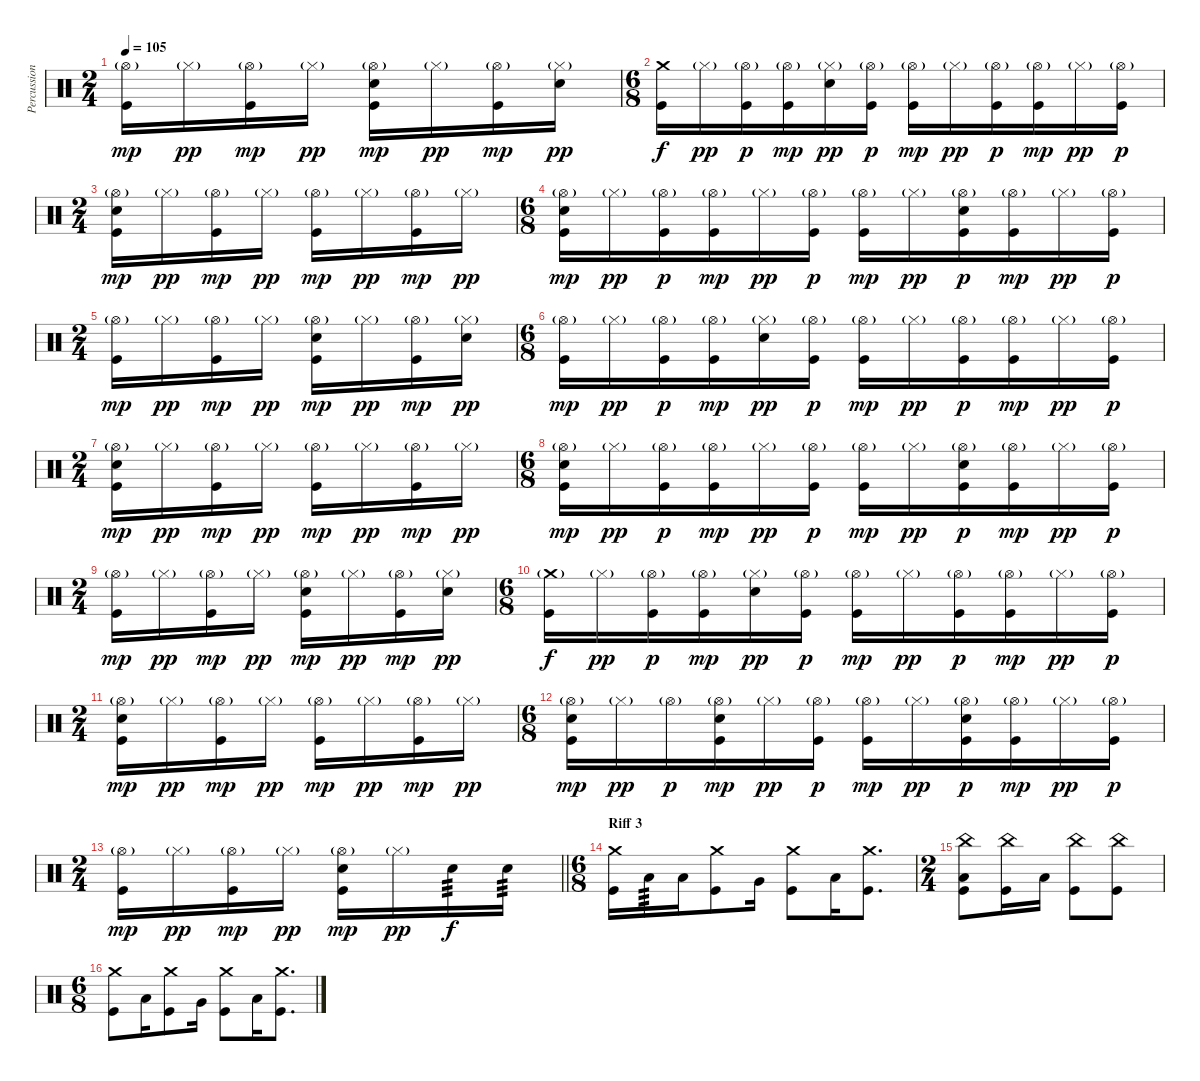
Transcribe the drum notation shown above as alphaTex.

\track ("Percussion" "Percussion") {instrument percussion}
\staff {score}
\articulation defaults
\ts (2 4)
\tempo 105
\clef neutral
\ks c
("Hi-Hat (open)"{g} "Kick (hit)").16{dy mp} "Hi-Hat (closed)"{g}.16{dy pp} ("Hi-Hat (open)"{g} "Kick (hit)").16{dy mp} "Hi-Hat (closed)"{g}.16{dy pp} ("Hi-Hat (open)"{g} "Snare (hit) 2" "Kick (hit)").16{dy mp} "Hi-Hat (closed)"{g}.16{dy pp} ("Hi-Hat (open)"{g} "Kick (hit)").16{dy mp} ("Hi-Hat (closed)"{g} "Snare (hit) 2").16{dy pp} |
\ts (6 8)
("Crash medium (hit)" "Kick (hit)").16{dy f} "Hi-Hat (closed)"{g}.16{dy pp} ("Hi-Hat (open)"{g} "Kick (hit)").16{dy p} ("Hi-Hat (open)"{g} "Kick (hit)").16{dy mp} ("Hi-Hat (closed)"{g} "Snare (hit) 2").16{dy pp} ("Hi-Hat (open)"{g} "Kick (hit)").16{dy p} ("Hi-Hat (open)"{g} "Kick (hit)").16{dy mp} "Hi-Hat (closed)"{g}.16{dy pp} ("Hi-Hat (open)"{g} "Kick (hit)").16{dy p} ("Hi-Hat (open)"{g} "Kick (hit)").16{dy mp} "Hi-Hat (closed)"{g}.16{dy pp} ("Hi-Hat (open)"{g} "Kick (hit)").16{dy p} |
\ts (2 4)
("Hi-Hat (open)"{g} "Snare (hit) 2" "Kick (hit)").16{dy mp} "Hi-Hat (closed)"{g}.16{dy pp} ("Hi-Hat (open)"{g} "Kick (hit)").16{dy mp} "Hi-Hat (closed)"{g}.16{dy pp} ("Hi-Hat (open)"{g} "Kick (hit)").16{dy mp} "Hi-Hat (closed)"{g}.16{dy pp} ("Hi-Hat (open)"{g} "Kick (hit)").16{dy mp} "Hi-Hat (closed)"{g}.16{dy pp} |
\ts (6 8)
("Hi-Hat (open)"{g} "Snare (hit) 2" "Kick (hit)").16{dy mp} "Hi-Hat (closed)"{g}.16{dy pp} ("Hi-Hat (open)"{g} "Kick (hit)").16{dy p} ("Hi-Hat (open)"{g} "Kick (hit)").16{dy mp} "Hi-Hat (closed)"{g}.16{dy pp} ("Hi-Hat (open)"{g} "Kick (hit)").16{dy p} ("Hi-Hat (open)"{g} "Kick (hit)").16{dy mp} "Hi-Hat (closed)"{g}.16{dy pp} ("Hi-Hat (open)"{g} "Snare (hit) 2" "Kick (hit)").16{dy p} ("Hi-Hat (open)"{g} "Kick (hit)").16{dy mp} "Hi-Hat (closed)"{g}.16{dy pp} ("Hi-Hat (open)"{g} "Kick (hit)").16{dy p} |
\ts (2 4)
("Hi-Hat (open)"{g} "Kick (hit)").16{dy mp} "Hi-Hat (closed)"{g}.16{dy pp} ("Hi-Hat (open)"{g} "Kick (hit)").16{dy mp} "Hi-Hat (closed)"{g}.16{dy pp} ("Hi-Hat (open)"{g} "Snare (hit) 2" "Kick (hit)").16{dy mp} "Hi-Hat (closed)"{g}.16{dy pp} ("Hi-Hat (open)"{g} "Kick (hit)").16{dy mp} ("Hi-Hat (closed)"{g} "Snare (hit) 2").16{dy pp} |
\ts (6 8)
("Hi-Hat (open)"{g} "Kick (hit)").16{dy mp} "Hi-Hat (closed)"{g}.16{dy pp} ("Hi-Hat (open)"{g} "Kick (hit)").16{dy p} ("Hi-Hat (open)"{g} "Kick (hit)").16{dy mp} ("Hi-Hat (closed)"{g} "Snare (hit) 2").16{dy pp} ("Hi-Hat (open)"{g} "Kick (hit)").16{dy p} ("Hi-Hat (open)"{g} "Kick (hit)").16{dy mp} "Hi-Hat (closed)"{g}.16{dy pp} ("Hi-Hat (open)"{g} "Kick (hit)").16{dy p} ("Hi-Hat (open)"{g} "Kick (hit)").16{dy mp} "Hi-Hat (closed)"{g}.16{dy pp} ("Hi-Hat (open)"{g} "Kick (hit)").16{dy p} |
\ts (2 4)
("Hi-Hat (open)"{g} "Snare (hit) 2" "Kick (hit)").16{dy mp} "Hi-Hat (closed)"{g}.16{dy pp} ("Hi-Hat (open)"{g} "Kick (hit)").16{dy mp} "Hi-Hat (closed)"{g}.16{dy pp} ("Hi-Hat (open)"{g} "Kick (hit)").16{dy mp} "Hi-Hat (closed)"{g}.16{dy pp} ("Hi-Hat (open)"{g} "Kick (hit)").16{dy mp} "Hi-Hat (closed)"{g}.16{dy pp} |
\ts (6 8)
("Hi-Hat (open)"{g} "Snare (hit) 2" "Kick (hit)").16{dy mp} "Hi-Hat (closed)"{g}.16{dy pp} ("Hi-Hat (open)"{g} "Kick (hit)").16{dy p} ("Hi-Hat (open)"{g} "Kick (hit)").16{dy mp} "Hi-Hat (closed)"{g}.16{dy pp} ("Hi-Hat (open)"{g} "Kick (hit)").16{dy p} ("Hi-Hat (open)"{g} "Kick (hit)").16{dy mp} "Hi-Hat (closed)"{g}.16{dy pp} ("Hi-Hat (open)"{g} "Snare (hit) 2" "Kick (hit)").16{dy p} ("Hi-Hat (open)"{g} "Kick (hit)").16{dy mp} "Hi-Hat (closed)"{g}.16{dy pp} ("Hi-Hat (open)"{g} "Kick (hit)").16{dy p} |
\ts (2 4)
("Hi-Hat (open)"{g} "Kick (hit)").16{dy mp} "Hi-Hat (closed)"{g}.16{dy pp} ("Hi-Hat (open)"{g} "Kick (hit)").16{dy mp} "Hi-Hat (closed)"{g}.16{dy pp} ("Hi-Hat (open)"{g} "Snare (hit) 2" "Kick (hit)").16{dy mp} "Hi-Hat (closed)"{g}.16{dy pp} ("Hi-Hat (open)"{g} "Kick (hit)").16{dy mp} ("Hi-Hat (closed)"{g} "Snare (hit) 2").16{dy pp} |
\ts (6 8)
("Crash medium (hit)"{g} "Kick (hit)").16{dy f} "Hi-Hat (closed)"{g}.16{dy pp} ("Hi-Hat (open)"{g} "Kick (hit)").16{dy p} ("Hi-Hat (open)"{g} "Kick (hit)").16{dy mp} ("Hi-Hat (closed)"{g} "Snare (hit) 2").16{dy pp} ("Hi-Hat (open)"{g} "Kick (hit)").16{dy p} ("Hi-Hat (open)"{g} "Kick (hit)").16{dy mp} "Hi-Hat (closed)"{g}.16{dy pp} ("Hi-Hat (open)"{g} "Kick (hit)").16{dy p} ("Hi-Hat (open)"{g} "Kick (hit)").16{dy mp} "Hi-Hat (closed)"{g}.16{dy pp} ("Hi-Hat (open)"{g} "Kick (hit)").16{dy p} |
\ts (2 4)
("Hi-Hat (open)"{g} "Snare (hit) 2" "Kick (hit)").16{dy mp} "Hi-Hat (closed)"{g}.16{dy pp} ("Hi-Hat (open)"{g} "Kick (hit)").16{dy mp} "Hi-Hat (closed)"{g}.16{dy pp} ("Hi-Hat (open)"{g} "Kick (hit)").16{dy mp} "Hi-Hat (closed)"{g}.16{dy pp} ("Hi-Hat (open)"{g} "Kick (hit)").16{dy mp} "Hi-Hat (closed)"{g}.16{dy pp} |
\ts (6 8)
("Hi-Hat (open)"{g} "Snare (hit) 2" "Kick (hit)").16{dy mp} "Hi-Hat (closed)"{g}.16{dy pp} "Hi-Hat (open)"{g}.16{dy p} ("Hi-Hat (open)"{g} "Snare (hit) 2" "Kick (hit)").16{dy mp} "Hi-Hat (closed)"{g}.16{dy pp} ("Hi-Hat (open)"{g} "Kick (hit)").16{dy p} ("Hi-Hat (open)"{g} "Kick (hit)").16{dy mp} "Hi-Hat (closed)"{g}.16{dy pp} ("Hi-Hat (open)"{g} "Snare (hit) 2" "Kick (hit)").16{dy p} ("Hi-Hat (open)"{g} "Kick (hit)").16{dy mp} "Hi-Hat (closed)"{g}.16{dy pp} ("Hi-Hat (open)"{g} "Kick (hit)").16{dy p} |
\ts (2 4)
\barLineRight lightlight
("Hi-Hat (open)"{g} "Kick (hit)").16{dy mp} "Hi-Hat (closed)"{g}.16{dy pp} ("Hi-Hat (open)"{g} "Kick (hit)").16{dy mp} "Hi-Hat (closed)"{g}.16{dy pp} ("Hi-Hat (open)"{g} "Snare (hit) 2" "Kick (hit)").16{dy mp} "Hi-Hat (closed)"{g}.16{dy pp} "Snare (hit) 2".16{tp 3 dy f} "Snare (hit) 2".16{tp 3} |
\ts (6 8)
\section ("" "Riff 3")
("Crash medium (hit)" "Kick (hit)").16 "Low Tom (hit)".16{tp 3} "Low Tom (hit)".16 ("Crash medium (hit)" "Kick (hit)").8 "Very Low Tom (hit)".16 ("Crash medium (hit)" "Kick (hit)").8 "Low Floor Tom (hit)".16 ("Crash medium (hit)" "Kick (hit)").8{d} |
\ts (2 4)
("China (hit)" "Low Floor Tom (hit)" "Kick (hit)").8 ("China (hit)" "Kick (hit)").16 "Low Floor Tom (hit)".16 ("China (hit)" "Kick (hit)").8 ("China (hit)" "Kick (hit)").8 |
\ts (6 8)
("Crash medium (hit)" "Kick (hit)").8 "Low Floor Tom (hit)".16 ("Crash medium (hit)" "Kick (hit)").8 "Very Low Tom (hit)".16 ("Crash medium (hit)" "Kick (hit)").8 "Low Floor Tom (hit)".16 ("Crash medium (hit)" "Kick (hit)").8{d}
